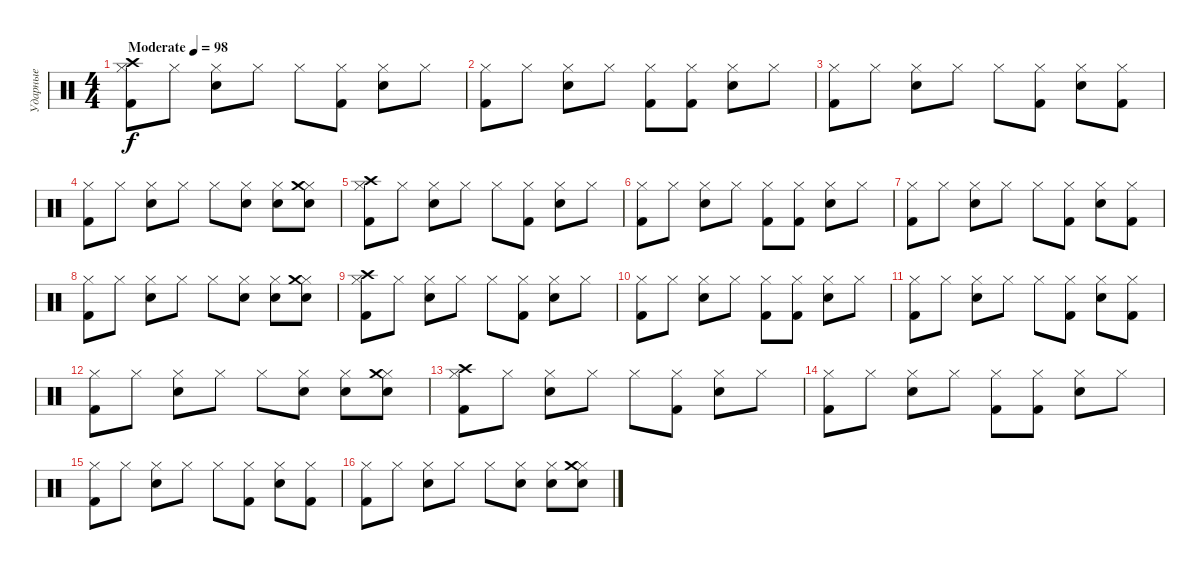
\track ("Ударные" "Ударные") {mute instrument percussion}
\staff {score}
\articulation defaults
\ts (4 4)
\tempo (98 "Moderate")
\clef neutral
\ks c
("Hi-Hat (closed)" "Crash high (hit)" "Kick (hit) 2").8{dy f} "Hi-Hat (closed)".8 ("Hi-Hat (closed)" "Snare (hit) 2").8 "Hi-Hat (closed)".8 "Hi-Hat (closed)".8 ("Hi-Hat (closed)" "Kick (hit) 2").8 ("Hi-Hat (closed)" "Snare (hit) 2").8 "Hi-Hat (closed)".8 |
("Hi-Hat (closed)" "Kick (hit) 2").8 "Hi-Hat (closed)".8 ("Hi-Hat (closed)" "Snare (hit) 2").8 "Hi-Hat (closed)".8 ("Hi-Hat (closed)" "Kick (hit) 2").8 ("Hi-Hat (closed)" "Kick (hit) 2").8 ("Hi-Hat (closed)" "Snare (hit) 2").8 "Hi-Hat (closed)".8 |
("Hi-Hat (closed)" "Kick (hit) 2").8 "Hi-Hat (closed)".8 ("Hi-Hat (closed)" "Snare (hit) 2").8 "Hi-Hat (closed)".8 "Hi-Hat (closed)".8 ("Hi-Hat (closed)" "Kick (hit) 2").8 ("Hi-Hat (closed)" "Snare (hit) 2").8 ("Hi-Hat (closed)" "Kick (hit) 2").8 |
("Hi-Hat (closed)" "Kick (hit) 2").8 "Hi-Hat (closed)".8 ("Hi-Hat (closed)" "Snare (hit) 2").8 "Hi-Hat (closed)".8 "Hi-Hat (closed)".8 ("Hi-Hat (closed)" "Snare (hit) 2").8 ("Hi-Hat (closed)" "Snare (hit) 2").8 ("Hi-Hat (closed)" "Snare (hit) 2" "Crash medium (hit)").8 |
("Hi-Hat (closed)" "Crash high (hit)" "Kick (hit) 2").8 "Hi-Hat (closed)".8 ("Hi-Hat (closed)" "Snare (hit) 2").8 "Hi-Hat (closed)".8 "Hi-Hat (closed)".8 ("Hi-Hat (closed)" "Kick (hit) 2").8 ("Hi-Hat (closed)" "Snare (hit) 2").8 "Hi-Hat (closed)".8 |
("Hi-Hat (closed)" "Kick (hit) 2").8 "Hi-Hat (closed)".8 ("Hi-Hat (closed)" "Snare (hit) 2").8 "Hi-Hat (closed)".8 ("Hi-Hat (closed)" "Kick (hit) 2").8 ("Hi-Hat (closed)" "Kick (hit) 2").8 ("Hi-Hat (closed)" "Snare (hit) 2").8 "Hi-Hat (closed)".8 |
("Hi-Hat (closed)" "Kick (hit) 2").8 "Hi-Hat (closed)".8 ("Hi-Hat (closed)" "Snare (hit) 2").8 "Hi-Hat (closed)".8 "Hi-Hat (closed)".8 ("Hi-Hat (closed)" "Kick (hit) 2").8 ("Hi-Hat (closed)" "Snare (hit) 2").8 ("Hi-Hat (closed)" "Kick (hit) 2").8 |
("Hi-Hat (closed)" "Kick (hit) 2").8 "Hi-Hat (closed)".8 ("Hi-Hat (closed)" "Snare (hit) 2").8 "Hi-Hat (closed)".8 "Hi-Hat (closed)".8 ("Hi-Hat (closed)" "Snare (hit) 2").8 ("Hi-Hat (closed)" "Snare (hit) 2").8 ("Hi-Hat (closed)" "Snare (hit) 2" "Crash medium (hit)").8 |
("Hi-Hat (closed)" "Crash high (hit)" "Kick (hit) 2").8 "Hi-Hat (closed)".8 ("Hi-Hat (closed)" "Snare (hit) 2").8 "Hi-Hat (closed)".8 "Hi-Hat (closed)".8 ("Hi-Hat (closed)" "Kick (hit) 2").8 ("Hi-Hat (closed)" "Snare (hit) 2").8 "Hi-Hat (closed)".8 |
("Hi-Hat (closed)" "Kick (hit) 2").8 "Hi-Hat (closed)".8 ("Hi-Hat (closed)" "Snare (hit) 2").8 "Hi-Hat (closed)".8 ("Hi-Hat (closed)" "Kick (hit) 2").8 ("Hi-Hat (closed)" "Kick (hit) 2").8 ("Hi-Hat (closed)" "Snare (hit) 2").8 "Hi-Hat (closed)".8 |
("Hi-Hat (closed)" "Kick (hit) 2").8 "Hi-Hat (closed)".8 ("Hi-Hat (closed)" "Snare (hit) 2").8 "Hi-Hat (closed)".8 "Hi-Hat (closed)".8 ("Hi-Hat (closed)" "Kick (hit) 2").8 ("Hi-Hat (closed)" "Snare (hit) 2").8 ("Hi-Hat (closed)" "Kick (hit) 2").8 |
("Hi-Hat (closed)" "Kick (hit) 2").8 "Hi-Hat (closed)".8 ("Hi-Hat (closed)" "Snare (hit) 2").8 "Hi-Hat (closed)".8 "Hi-Hat (closed)".8 ("Hi-Hat (closed)" "Snare (hit) 2").8 ("Hi-Hat (closed)" "Snare (hit) 2").8 ("Hi-Hat (closed)" "Snare (hit) 2" "Crash medium (hit)").8 |
("Hi-Hat (closed)" "Crash high (hit)" "Kick (hit) 2").8 "Hi-Hat (closed)".8 ("Hi-Hat (closed)" "Snare (hit) 2").8 "Hi-Hat (closed)".8 "Hi-Hat (closed)".8 ("Hi-Hat (closed)" "Kick (hit) 2").8 ("Hi-Hat (closed)" "Snare (hit) 2").8 "Hi-Hat (closed)".8 |
("Hi-Hat (closed)" "Kick (hit) 2").8 "Hi-Hat (closed)".8 ("Hi-Hat (closed)" "Snare (hit) 2").8 "Hi-Hat (closed)".8 ("Hi-Hat (closed)" "Kick (hit) 2").8 ("Hi-Hat (closed)" "Kick (hit) 2").8 ("Hi-Hat (closed)" "Snare (hit) 2").8 "Hi-Hat (closed)".8 |
("Hi-Hat (closed)" "Kick (hit) 2").8 "Hi-Hat (closed)".8 ("Hi-Hat (closed)" "Snare (hit) 2").8 "Hi-Hat (closed)".8 "Hi-Hat (closed)".8 ("Hi-Hat (closed)" "Kick (hit) 2").8 ("Hi-Hat (closed)" "Snare (hit) 2").8 ("Hi-Hat (closed)" "Kick (hit) 2").8 |
("Hi-Hat (closed)" "Kick (hit) 2").8 "Hi-Hat (closed)".8 ("Hi-Hat (closed)" "Snare (hit) 2").8 "Hi-Hat (closed)".8 "Hi-Hat (closed)".8 ("Hi-Hat (closed)" "Snare (hit) 2").8 ("Hi-Hat (closed)" "Snare (hit) 2").8 ("Hi-Hat (closed)" "Snare (hit) 2" "Crash medium (hit)").8
